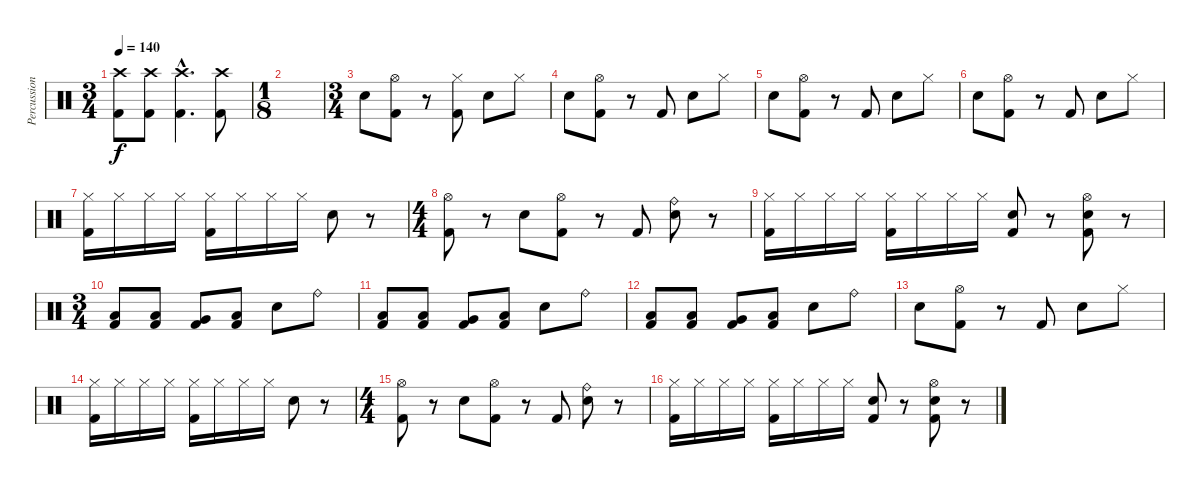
\track ("Percussion" "Percussion") {instrument percussion}
\staff {score}
\articulation defaults
\ts (3 4)
\tempo 140
\clef neutral
\ks c
("Crash high (hit)" "Kick (hit) 2").8{dy f} ("Crash high (hit)" "Kick (hit) 2").8 ("Crash high (hit)"{hac} "Kick (hit) 2"{hac}).4{d} ("Crash high (hit)" "Kick (hit) 2").8 |
\ts (1 8)
|
\ts (3 4)
"Electric Snare (hit)".8 ("Kick (hit) 2" "Hi-Hat (open)").8 r.8 ("Kick (hit) 2" "Hi-Hat (closed)").8 "Electric Snare (hit)".8 "Hi-Hat (closed)".8 |
"Electric Snare (hit)".8 ("Kick (hit) 2" "Hi-Hat (open)").8 r.8 "Kick (hit) 2".8 "Electric Snare (hit)".8 "Hi-Hat (closed)".8 |
"Electric Snare (hit)".8 ("Kick (hit) 2" "Hi-Hat (open)").8 r.8 "Kick (hit) 2".8 "Electric Snare (hit)".8 "Hi-Hat (closed)".8 |
"Electric Snare (hit)".8 ("Kick (hit) 2" "Hi-Hat (open)").8 r.8 "Kick (hit) 2".8 "Electric Snare (hit)".8 "Hi-Hat (closed)".8 |
("Hi-Hat (closed)" "Kick (hit) 2").16 "Hi-Hat (closed)".16 "Hi-Hat (closed)".16 "Hi-Hat (closed)".16 ("Hi-Hat (closed)" "Kick (hit) 2").16 "Hi-Hat (closed)".16 "Hi-Hat (closed)".16 "Hi-Hat (closed)".16 "Electric Snare (hit)".8 r.8 |
\ts (4 4)
("Kick (hit) 2" "Hi-Hat (open)").8 r.8 "Electric Snare (hit)".8 ("Hi-Hat (open)" "Kick (hit) 2").8 r.8 "Kick (hit) 2".8 ("Electric Snare (hit)" "Ride (bell)").8 r.8 |
("Hi-Hat (closed)" "Kick (hit) 2").16 "Hi-Hat (closed)".16 "Hi-Hat (closed)".16 "Hi-Hat (closed)".16 ("Hi-Hat (closed)" "Kick (hit) 2").16 "Hi-Hat (closed)".16 "Hi-Hat (closed)".16 "Hi-Hat (closed)".16 ("Kick (hit) 2" "Electric Snare (hit)").8 r.8 ("Hi-Hat (open)" "Kick (hit) 2" "Electric Snare (hit)").8 r.8 |
\ts (3 4)
("Low Tom (hit)" "Kick (hit) 2").8 ("Low Tom (hit)" "Kick (hit) 2").8 ("Very Low Tom (hit)" "Kick (hit) 2").8 ("Low Tom (hit)" "Kick (hit) 2").8 "Electric Snare (hit)".8 "Ride (bell)".8 |
("Low Tom (hit)" "Kick (hit) 2").8 ("Low Tom (hit)" "Kick (hit) 2").8 ("Very Low Tom (hit)" "Kick (hit) 2").8 ("Low Tom (hit)" "Kick (hit) 2").8 "Electric Snare (hit)".8 "Ride (bell)".8 |
("Low Tom (hit)" "Kick (hit) 2").8 ("Low Tom (hit)" "Kick (hit) 2").8 ("Very Low Tom (hit)" "Kick (hit) 2").8 ("Low Tom (hit)" "Kick (hit) 2").8 "Electric Snare (hit)".8 "Ride (bell)".8 |
"Electric Snare (hit)".8 ("Kick (hit) 2" "Hi-Hat (open)").8 r.8 "Kick (hit) 2".8 "Electric Snare (hit)".8 "Hi-Hat (closed)".8 |
("Hi-Hat (closed)" "Kick (hit) 2").16 "Hi-Hat (closed)".16 "Hi-Hat (closed)".16 "Hi-Hat (closed)".16 ("Hi-Hat (closed)" "Kick (hit) 2").16 "Hi-Hat (closed)".16 "Hi-Hat (closed)".16 "Hi-Hat (closed)".16 "Electric Snare (hit)".8 r.8 |
\ts (4 4)
("Kick (hit) 2" "Hi-Hat (open)").8 r.8 "Electric Snare (hit)".8 ("Hi-Hat (open)" "Kick (hit) 2").8 r.8 "Kick (hit) 2".8 ("Electric Snare (hit)" "Ride (bell)").8 r.8 |
("Hi-Hat (closed)" "Kick (hit) 2").16 "Hi-Hat (closed)".16 "Hi-Hat (closed)".16 "Hi-Hat (closed)".16 ("Hi-Hat (closed)" "Kick (hit) 2").16 "Hi-Hat (closed)".16 "Hi-Hat (closed)".16 "Hi-Hat (closed)".16 ("Kick (hit) 2" "Electric Snare (hit)").8 r.8 ("Hi-Hat (open)" "Kick (hit) 2" "Electric Snare (hit)").8 r.8
